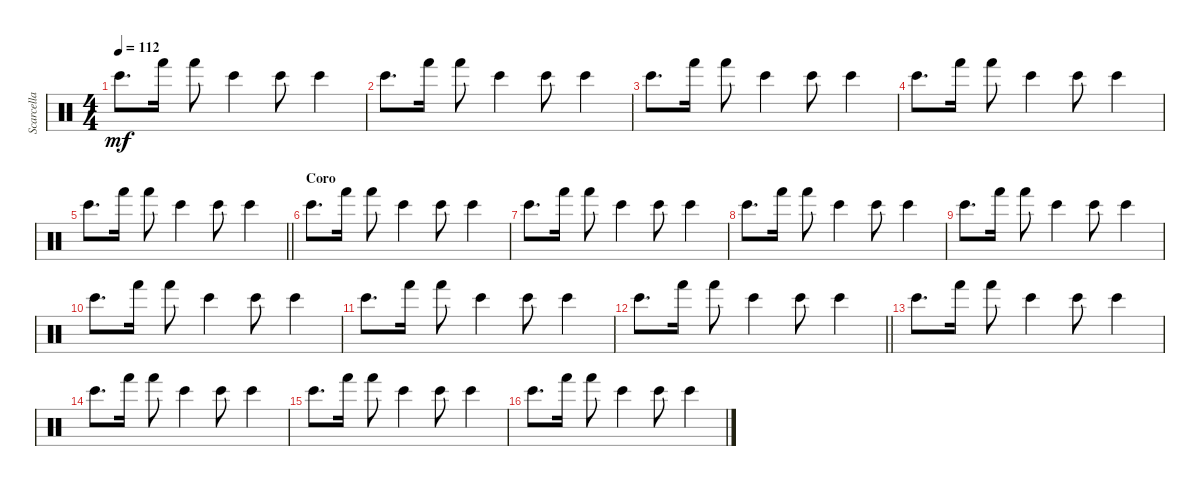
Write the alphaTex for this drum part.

\track ("Scarcella" "Scarcella") {instrument percussion}
\staff {score}
\articulation defaults
\ts (4 4)
\tempo 112
\clef neutral
\ks c "Bongo High (hit)".8{d dy mf} "Hand (hit)".16 "Hand (hit)".8 "Bongo High (hit)".4 "Bongo High (hit)".8 "Bongo High (hit)".4
|
"Bongo High (hit)".8{d} "Hand (hit)".16 "Hand (hit)".8 "Bongo High (hit)".4 "Bongo High (hit)".8 "Bongo High (hit)".4 |
"Bongo High (hit)".8{d} "Hand (hit)".16 "Hand (hit)".8 "Bongo High (hit)".4 "Bongo High (hit)".8 "Bongo High (hit)".4 |
"Bongo High (hit)".8{d} "Hand (hit)".16 "Hand (hit)".8 "Bongo High (hit)".4 "Bongo High (hit)".8 "Bongo High (hit)".4 |
\barLineRight lightlight "Bongo High (hit)".8{d} "Hand (hit)".16 "Hand (hit)".8 "Bongo High (hit)".4 "Bongo High (hit)".8 "Bongo High (hit)".4
|
\section ("" "Coro")
"Bongo High (hit)".8{d} "Hand (hit)".16 "Hand (hit)".8 "Bongo High (hit)".4 "Bongo High (hit)".8 "Bongo High (hit)".4 |
"Bongo High (hit)".8{d} "Hand (hit)".16 "Hand (hit)".8 "Bongo High (hit)".4 "Bongo High (hit)".8 "Bongo High (hit)".4 |
"Bongo High (hit)".8{d} "Hand (hit)".16 "Hand (hit)".8 "Bongo High (hit)".4 "Bongo High (hit)".8 "Bongo High (hit)".4 |
"Bongo High (hit)".8{d} "Hand (hit)".16 "Hand (hit)".8 "Bongo High (hit)".4 "Bongo High (hit)".8 "Bongo High (hit)".4 |
"Bongo High (hit)".8{d} "Hand (hit)".16 "Hand (hit)".8 "Bongo High (hit)".4 "Bongo High (hit)".8 "Bongo High (hit)".4 |
"Bongo High (hit)".8{d} "Hand (hit)".16 "Hand (hit)".8 "Bongo High (hit)".4 "Bongo High (hit)".8 "Bongo High (hit)".4 |
\barLineRight lightlight "Bongo High (hit)".8{d} "Hand (hit)".16 "Hand (hit)".8 "Bongo High (hit)".4 "Bongo High (hit)".8 "Bongo High (hit)".4
|
"Bongo High (hit)".8{d} "Hand (hit)".16 "Hand (hit)".8 "Bongo High (hit)".4 "Bongo High (hit)".8 "Bongo High (hit)".4 |
"Bongo High (hit)".8{d} "Hand (hit)".16 "Hand (hit)".8 "Bongo High (hit)".4 "Bongo High (hit)".8 "Bongo High (hit)".4 |
"Bongo High (hit)".8{d} "Hand (hit)".16 "Hand (hit)".8 "Bongo High (hit)".4 "Bongo High (hit)".8 "Bongo High (hit)".4 |
"Bongo High (hit)".8{d} "Hand (hit)".16 "Hand (hit)".8 "Bongo High (hit)".4 "Bongo High (hit)".8 "Bongo High (hit)".4
